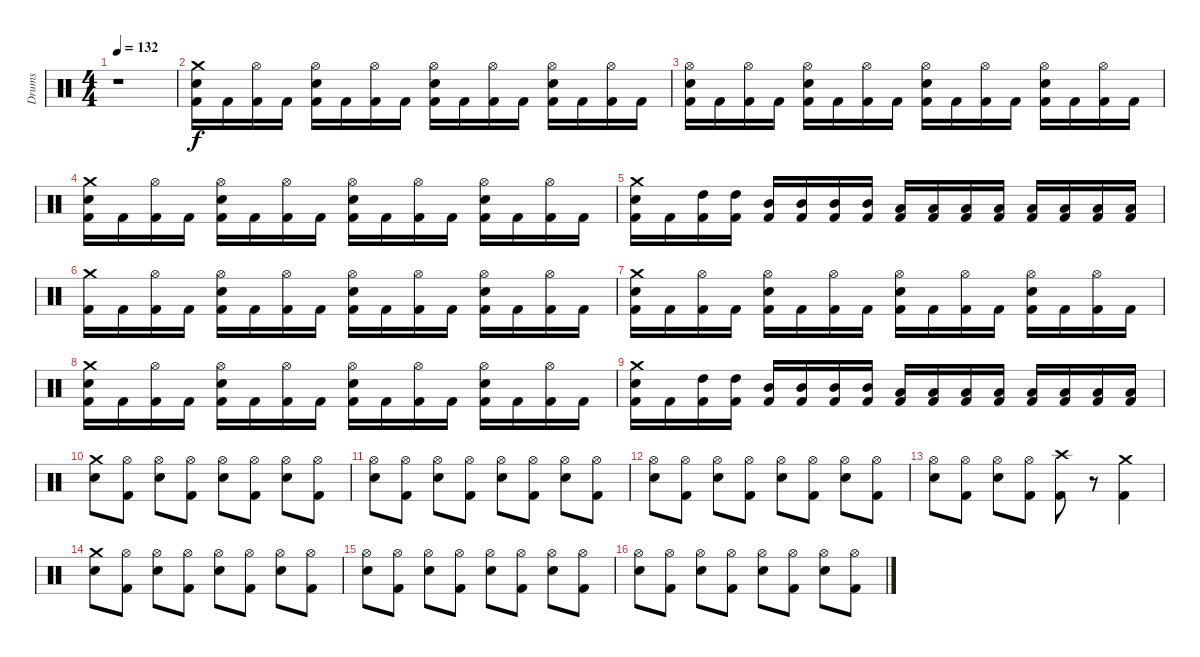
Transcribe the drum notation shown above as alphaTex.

\track ("Drums" "Drums") {instrument percussion}
\staff {score}
\articulation defaults
\ts (4 4)
\tempo 132
\clef neutral
\ks c
r.1{dy f} |
("Crash medium (hit)" "Electric Snare (hit)" "Kick (hit) 2").16 "Kick (hit) 2".16 ("Hi-Hat (open)" "Kick (hit) 2").16 "Kick (hit) 2".16 ("Hi-Hat (open)" "Electric Snare (hit)" "Kick (hit) 2").16 "Kick (hit) 2".16 ("Hi-Hat (open)" "Kick (hit) 2").16 "Kick (hit) 2".16 ("Hi-Hat (open)" "Electric Snare (hit)" "Kick (hit) 2").16 "Kick (hit) 2".16 ("Hi-Hat (open)" "Kick (hit) 2").16 "Kick (hit) 2".16 ("Hi-Hat (open)" "Electric Snare (hit)" "Kick (hit) 2").16 "Kick (hit) 2".16 ("Hi-Hat (open)" "Kick (hit) 2").16 "Kick (hit) 2".16 |
("Hi-Hat (open)" "Electric Snare (hit)" "Kick (hit) 2").16 "Kick (hit) 2".16 ("Hi-Hat (open)" "Kick (hit) 2").16 "Kick (hit) 2".16 ("Hi-Hat (open)" "Electric Snare (hit)" "Kick (hit) 2").16 "Kick (hit) 2".16 ("Hi-Hat (open)" "Kick (hit) 2").16 "Kick (hit) 2".16 ("Hi-Hat (open)" "Electric Snare (hit)" "Kick (hit) 2").16 "Kick (hit) 2".16 ("Hi-Hat (open)" "Kick (hit) 2").16 "Kick (hit) 2".16 ("Hi-Hat (open)" "Electric Snare (hit)" "Kick (hit) 2").16 "Kick (hit) 2".16 ("Hi-Hat (open)" "Kick (hit) 2").16 "Kick (hit) 2".16 |
("Crash medium (hit)" "Electric Snare (hit)" "Kick (hit) 2").16 "Kick (hit) 2".16 ("Hi-Hat (open)" "Kick (hit) 2").16 "Kick (hit) 2".16 ("Hi-Hat (open)" "Electric Snare (hit)" "Kick (hit) 2").16 "Kick (hit) 2".16 ("Hi-Hat (open)" "Kick (hit) 2").16 "Kick (hit) 2".16 ("Hi-Hat (open)" "Electric Snare (hit)" "Kick (hit) 2").16 "Kick (hit) 2".16 ("Hi-Hat (open)" "Kick (hit) 2").16 "Kick (hit) 2".16 ("Hi-Hat (open)" "Electric Snare (hit)" "Kick (hit) 2").16 "Kick (hit) 2".16 ("Hi-Hat (open)" "Kick (hit) 2").16 "Kick (hit) 2".16 |
("Crash medium (hit)" "Electric Snare (hit)" "Kick (hit) 2").16 "Kick (hit) 2".16 ("High Tom (hit)" "Kick (hit) 2").16 ("High Tom (hit)" "Kick (hit) 2").16 ("Mid Tom (hit)" "Kick (hit) 2").16 ("Mid Tom (hit)" "Kick (hit) 2").16 ("Mid Tom (hit)" "Kick (hit) 2").16 ("Mid Tom (hit)" "Kick (hit) 2").16 ("Low Tom (hit)" "Kick (hit) 2").16 ("Low Tom (hit)" "Kick (hit) 2").16 ("Low Tom (hit)" "Kick (hit) 2").16 ("Low Tom (hit)" "Kick (hit) 2").16 ("Low Floor Tom (hit)" "Kick (hit) 2").16 ("Low Floor Tom (hit)" "Kick (hit) 2").16 ("Low Floor Tom (hit)" "Kick (hit) 2").16 ("Low Floor Tom (hit)" "Kick (hit) 2").16 |
("Crash medium (hit)" "Kick (hit) 2").16 "Kick (hit) 2".16 ("Hi-Hat (open)" "Kick (hit) 2").16 "Kick (hit) 2".16 ("Hi-Hat (open)" "Electric Snare (hit)" "Kick (hit) 2").16 "Kick (hit) 2".16 ("Hi-Hat (open)" "Kick (hit) 2").16 "Kick (hit) 2".16 ("Hi-Hat (open)" "Electric Snare (hit)" "Kick (hit) 2").16 "Kick (hit) 2".16 ("Hi-Hat (open)" "Kick (hit) 2").16 "Kick (hit) 2".16 ("Hi-Hat (open)" "Electric Snare (hit)" "Kick (hit) 2").16 "Kick (hit) 2".16 ("Hi-Hat (open)" "Kick (hit) 2").16 "Kick (hit) 2".16 |
("Crash medium (hit)" "Electric Snare (hit)" "Kick (hit) 2").16 "Kick (hit) 2".16 ("Hi-Hat (open)" "Kick (hit) 2").16 "Kick (hit) 2".16 ("Hi-Hat (open)" "Electric Snare (hit)" "Kick (hit) 2").16 "Kick (hit) 2".16 ("Hi-Hat (open)" "Kick (hit) 2").16 "Kick (hit) 2".16 ("Hi-Hat (open)" "Electric Snare (hit)" "Kick (hit) 2").16 "Kick (hit) 2".16 ("Hi-Hat (open)" "Kick (hit) 2").16 "Kick (hit) 2".16 ("Hi-Hat (open)" "Electric Snare (hit)" "Kick (hit) 2").16 "Kick (hit) 2".16 ("Hi-Hat (open)" "Kick (hit) 2").16 "Kick (hit) 2".16 |
("Crash medium (hit)" "Electric Snare (hit)" "Kick (hit) 2").16 "Kick (hit) 2".16 ("Hi-Hat (open)" "Kick (hit) 2").16 "Kick (hit) 2".16 ("Hi-Hat (open)" "Electric Snare (hit)" "Kick (hit) 2").16 "Kick (hit) 2".16 ("Hi-Hat (open)" "Kick (hit) 2").16 "Kick (hit) 2".16 ("Hi-Hat (open)" "Electric Snare (hit)" "Kick (hit) 2").16 "Kick (hit) 2".16 ("Hi-Hat (open)" "Kick (hit) 2").16 "Kick (hit) 2".16 ("Hi-Hat (open)" "Electric Snare (hit)" "Kick (hit) 2").16 "Kick (hit) 2".16 ("Hi-Hat (open)" "Kick (hit) 2").16 "Kick (hit) 2".16 |
("Crash medium (hit)" "Electric Snare (hit)" "Kick (hit) 2").16 "Kick (hit) 2".16 ("High Tom (hit)" "Kick (hit) 2").16 ("High Tom (hit)" "Kick (hit) 2").16 ("Mid Tom (hit)" "Kick (hit) 2").16 ("Mid Tom (hit)" "Kick (hit) 2").16 ("Mid Tom (hit)" "Kick (hit) 2").16 ("Mid Tom (hit)" "Kick (hit) 2").16 ("Low Tom (hit)" "Kick (hit) 2").16 ("Low Tom (hit)" "Kick (hit) 2").16 ("Low Tom (hit)" "Kick (hit) 2").16 ("Low Tom (hit)" "Kick (hit) 2").16 ("Low Floor Tom (hit)" "Kick (hit) 2").16 ("Low Floor Tom (hit)" "Kick (hit) 2").16 ("Low Floor Tom (hit)" "Kick (hit) 2").16 ("Low Floor Tom (hit)" "Kick (hit) 2").16 |
("Crash medium (hit)" "Electric Snare (hit)").8 ("Hi-Hat (open)" "Kick (hit) 2").8 ("Hi-Hat (open)" "Electric Snare (hit)").8 ("Hi-Hat (open)" "Kick (hit) 2").8 ("Hi-Hat (open)" "Electric Snare (hit)").8 ("Hi-Hat (open)" "Kick (hit) 2").8 ("Hi-Hat (open)" "Electric Snare (hit)").8 ("Hi-Hat (open)" "Kick (hit) 2").8 |
("Hi-Hat (open)" "Electric Snare (hit)").8 ("Hi-Hat (open)" "Kick (hit) 2").8 ("Hi-Hat (open)" "Electric Snare (hit)").8 ("Hi-Hat (open)" "Kick (hit) 2").8 ("Hi-Hat (open)" "Electric Snare (hit)").8 ("Hi-Hat (open)" "Kick (hit) 2").8 ("Hi-Hat (open)" "Electric Snare (hit)").8 ("Hi-Hat (open)" "Kick (hit) 2").8 |
("Hi-Hat (open)" "Electric Snare (hit)").8 ("Hi-Hat (open)" "Kick (hit) 2").8 ("Hi-Hat (open)" "Electric Snare (hit)").8 ("Hi-Hat (open)" "Kick (hit) 2").8 ("Hi-Hat (open)" "Electric Snare (hit)").8 ("Hi-Hat (open)" "Kick (hit) 2").8 ("Hi-Hat (open)" "Electric Snare (hit)").8 ("Hi-Hat (open)" "Kick (hit) 2").8 |
("Hi-Hat (open)" "Electric Snare (hit)").8 ("Hi-Hat (open)" "Kick (hit) 2").8 ("Hi-Hat (open)" "Electric Snare (hit)").8 ("Hi-Hat (open)" "Kick (hit) 2").8 ("Crash high (hit)" "Kick (hit) 2").8 r.8 ("Crash medium (hit)" "Kick (hit) 2").4 |
("Crash medium (hit)" "Electric Snare (hit)").8 ("Hi-Hat (open)" "Kick (hit) 2").8 ("Hi-Hat (open)" "Electric Snare (hit)").8 ("Hi-Hat (open)" "Kick (hit) 2").8 ("Hi-Hat (open)" "Electric Snare (hit)").8 ("Hi-Hat (open)" "Kick (hit) 2").8 ("Hi-Hat (open)" "Electric Snare (hit)").8 ("Hi-Hat (open)" "Kick (hit) 2").8 |
("Hi-Hat (open)" "Electric Snare (hit)").8 ("Hi-Hat (open)" "Kick (hit) 2").8 ("Hi-Hat (open)" "Electric Snare (hit)").8 ("Hi-Hat (open)" "Kick (hit) 2").8 ("Hi-Hat (open)" "Electric Snare (hit)").8 ("Hi-Hat (open)" "Kick (hit) 2").8 ("Hi-Hat (open)" "Electric Snare (hit)").8 ("Hi-Hat (open)" "Kick (hit) 2").8 |
("Hi-Hat (open)" "Electric Snare (hit)").8 ("Hi-Hat (open)" "Kick (hit) 2").8 ("Hi-Hat (open)" "Electric Snare (hit)").8 ("Hi-Hat (open)" "Kick (hit) 2").8 ("Hi-Hat (open)" "Electric Snare (hit)").8 ("Hi-Hat (open)" "Kick (hit) 2").8 ("Hi-Hat (open)" "Electric Snare (hit)").8 ("Hi-Hat (open)" "Kick (hit) 2").8
